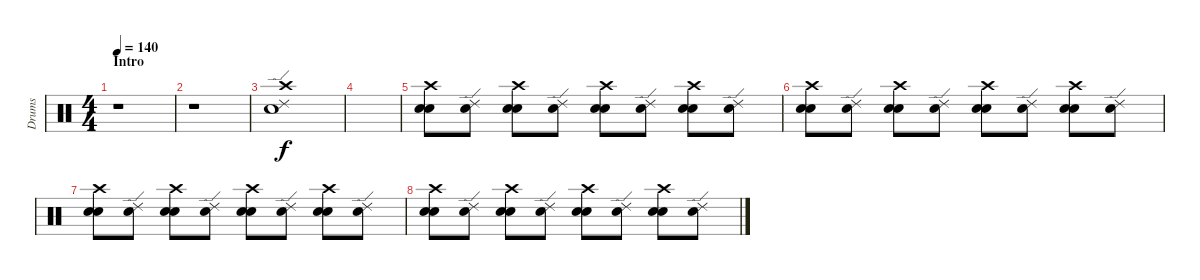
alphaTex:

\track ("Drums" "Drums") {instrument percussion}
\staff {score}
\articulation defaults
\ts (4 4)
\section ("" "Intro")
\tempo 140
\clef neutral
\ks c
r.1{dy f} |
r.1 |
("Crash high (hit)" "Ride (edge) 2" "Snare (hit) 2").1 |
|
("Crash high (hit)" "Electric Snare (hit)" "Snare (hit) 2").8 ("Ride (edge) 2" "Snare (hit) 2").8 ("Crash high (hit)" "Electric Snare (hit)" "Snare (hit) 2").8 ("Ride (edge) 2" "Snare (hit) 2").8 ("Crash high (hit)" "Electric Snare (hit)" "Snare (hit) 2").8 ("Ride (edge) 2" "Snare (hit) 2").8 ("Crash high (hit)" "Electric Snare (hit)" "Snare (hit) 2").8 ("Ride (edge) 2" "Snare (hit) 2").8 |
("Crash high (hit)" "Electric Snare (hit)" "Snare (hit) 2").8 ("Ride (edge) 2" "Snare (hit) 2").8 ("Crash high (hit)" "Electric Snare (hit)" "Snare (hit) 2").8 ("Ride (edge) 2" "Snare (hit) 2").8 ("Crash high (hit)" "Electric Snare (hit)" "Snare (hit) 2").8 ("Ride (edge) 2" "Snare (hit) 2").8 ("Crash high (hit)" "Electric Snare (hit)" "Snare (hit) 2").8 ("Ride (edge) 2" "Snare (hit) 2").8 |
("Crash high (hit)" "Electric Snare (hit)" "Snare (hit) 2").8 ("Ride (edge) 2" "Snare (hit) 2").8 ("Crash high (hit)" "Electric Snare (hit)" "Snare (hit) 2").8 ("Ride (edge) 2" "Snare (hit) 2").8 ("Crash high (hit)" "Electric Snare (hit)" "Snare (hit) 2").8 ("Ride (edge) 2" "Snare (hit) 2").8 ("Crash high (hit)" "Electric Snare (hit)" "Snare (hit) 2").8 ("Ride (edge) 2" "Snare (hit) 2").8 |
("Crash high (hit)" "Electric Snare (hit)" "Snare (hit) 2").8 ("Ride (edge) 2" "Snare (hit) 2").8 ("Crash high (hit)" "Electric Snare (hit)" "Snare (hit) 2").8 ("Ride (edge) 2" "Snare (hit) 2").8 ("Crash high (hit)" "Electric Snare (hit)" "Snare (hit) 2").8 ("Ride (edge) 2" "Snare (hit) 2").8 ("Crash high (hit)" "Electric Snare (hit)" "Snare (hit) 2").8 ("Ride (edge) 2" "Snare (hit) 2").8
